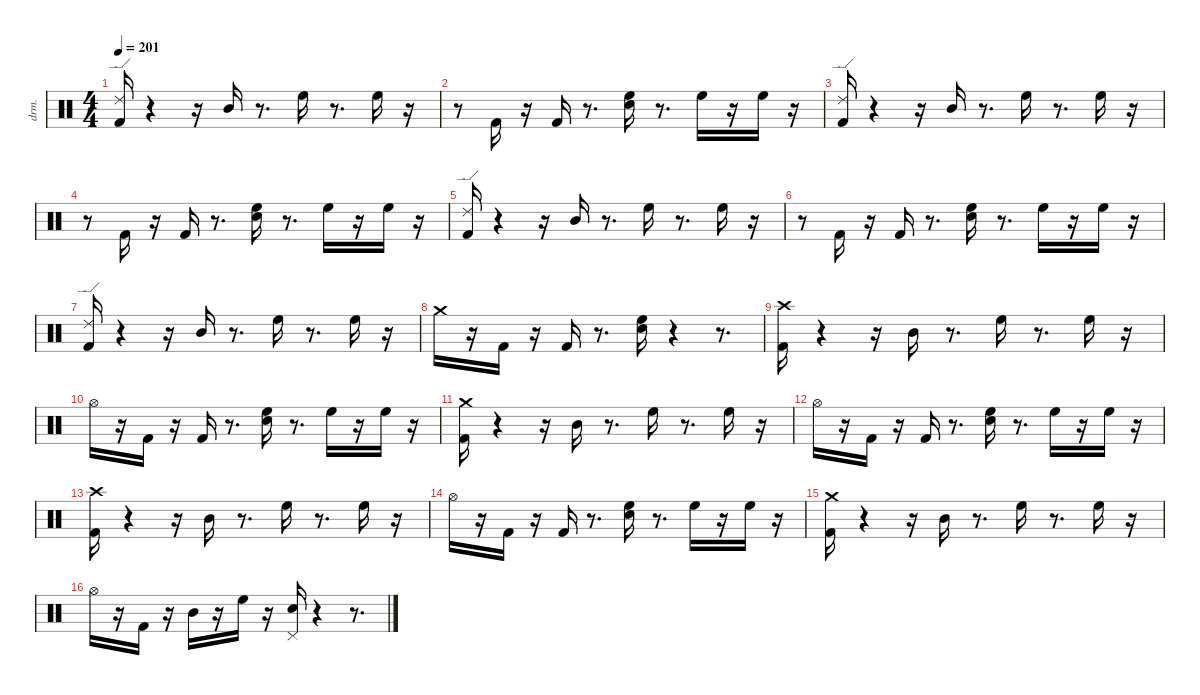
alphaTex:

\defaultSystemsLayout 4
\hideDynamics
\bracketExtendMode nobrackets
\otherSystemsTrackNameOrientation horizontal
\track ("Drums" "drm.") {instrument percussion}
\staff {score}
\articulation defaults
\ts (4 4)
\tempo 201
\clef neutral
\ks aminor
("Kick (hit) 2" "Ride (edge) 2").16{dy ff beam Up} r.4{beam Up} r.16{beam Up} "Mid Tom (hit)".16{beam Up} r.8{d beam Up} "High Floor Tom (hit)".16{beam Down} r.8{d beam Down} "High Floor Tom (hit)".16{beam Down} r.16{beam Down} |
r.8{beam Down} "Kick (hit) 2".16{dy f beam Up} r.16{beam Up} "Kick (hit) 2".16{dy mp beam Up} r.8{d beam Up} ("Snare (hit) 2" "High Floor Tom (hit)").16{dy ff beam Down} r.8{d beam Down} "High Floor Tom (hit)".16{beam Down} r.16{beam Down} "High Floor Tom (hit)".16{dy mf beam Down} r.16{beam Down} |
("Kick (hit) 2" "Ride (edge) 2").16{dy ff beam Up} r.4{beam Up} r.16{beam Up} "Mid Tom (hit)".16{beam Up} r.8{d beam Up} "High Floor Tom (hit)".16{beam Down} r.8{d beam Down} "High Floor Tom (hit)".16{beam Down} r.16{beam Down} |
r.8{beam Down} "Kick (hit) 2".16{dy f beam Up} r.16{beam Up} "Kick (hit) 2".16{dy mp beam Up} r.8{d beam Up} ("Snare (hit) 2" "High Floor Tom (hit)").16{dy ff beam Down} r.8{d beam Down} "High Floor Tom (hit)".16{beam Down} r.16{beam Down} "High Floor Tom (hit)".16{dy mf beam Down} r.16{beam Down} |
("Kick (hit) 2" "Ride (edge) 2").16{dy ff beam Up} r.4{beam Up} r.16{beam Up} "Mid Tom (hit)".16{beam Up} r.8{d beam Up} "High Floor Tom (hit)".16{beam Down} r.8{d beam Down} "High Floor Tom (hit)".16{beam Down} r.16{beam Down} |
r.8{beam Down} "Kick (hit) 2".16{dy f beam Up} r.16{beam Up} "Kick (hit) 2".16{dy mp beam Up} r.8{d beam Up} ("Snare (hit) 2" "High Floor Tom (hit)").16{dy ff beam Down} r.8{d beam Down} "High Floor Tom (hit)".16{beam Down} r.16{beam Down} "High Floor Tom (hit)".16{dy mf beam Down} r.16{beam Down} |
("Kick (hit) 2" "Ride (edge) 2").16{dy ff beam Up} r.4{beam Up} r.16{beam Up} "Mid Tom (hit)".16{beam Up} r.8{d beam Up} "High Floor Tom (hit)".16{beam Down} r.8{d beam Down} "High Floor Tom (hit)".16{beam Down} r.16{beam Down} |
"Crash medium (hit)".16{beam Down} r.16{beam Down} "Kick (hit) 2".16{dy f beam Down} r.16{beam Down} "Kick (hit) 2".16{dy mp beam Up} r.8{d beam Up} ("Snare (hit) 2" "High Floor Tom (hit)").16{dy ff beam Down} r.4{beam Down} r.8{d beam Down} |
("Kick (hit) 2" "Crash high (hit)"{acc #}).16{beam Down} r.4{beam Down} r.16{beam Down} "Mid Tom (hit)".16{beam Down} r.8{d beam Down} "High Floor Tom (hit)".16{beam Down} r.8{d beam Down} "High Floor Tom (hit)".16{beam Down} r.16{beam Down} |
"Hi-Hat (open)"{acc #}.16{beam Down} r.16{beam Down} "Kick (hit) 2".16{dy f beam Down} r.16{beam Down} "Kick (hit) 2".16{dy mp beam Up} r.8{d beam Up} ("Snare (hit) 2" "High Floor Tom (hit)").16{dy ff beam Down} r.8{d beam Down} "High Floor Tom (hit)".16{beam Down} r.16{beam Down} "High Floor Tom (hit)".16{dy mf beam Down} r.16{beam Down} |
("Kick (hit) 2" "Crash medium (hit)").16{dy ff beam Down} r.4{beam Down} r.16{beam Down} "Mid Tom (hit)".16{beam Down} r.8{d beam Down} "High Floor Tom (hit)".16{beam Down} r.8{d beam Down} "High Floor Tom (hit)".16{beam Down} r.16{beam Down} |
"Hi-Hat (open)"{acc #}.16{beam Down} r.16{beam Down} "Kick (hit) 2".16{dy f beam Down} r.16{beam Down} "Kick (hit) 2".16{dy mp beam Up} r.8{d beam Up} ("Snare (hit) 2" "High Floor Tom (hit)").16{dy ff beam Down} r.8{d beam Down} "High Floor Tom (hit)".16{beam Down} r.16{beam Down} "High Floor Tom (hit)".16{dy mf beam Down} r.16{beam Down} |
("Kick (hit) 2" "Crash high (hit)"{acc #}).16{dy ff beam Down} r.4{beam Down} r.16{beam Down} "Mid Tom (hit)".16{beam Down} r.8{d beam Down} "High Floor Tom (hit)".16{beam Down} r.8{d beam Down} "High Floor Tom (hit)".16{beam Down} r.16{beam Down} |
"Hi-Hat (open)"{acc #}.16{beam Down} r.16{beam Down} "Kick (hit) 2".16{dy f beam Down} r.16{beam Down} "Kick (hit) 2".16{dy mp beam Up} r.8{d beam Up} ("Snare (hit) 2" "High Floor Tom (hit)").16{dy ff beam Down} r.8{d beam Down} "High Floor Tom (hit)".16{beam Down} r.16{beam Down} "High Floor Tom (hit)".16{dy mf beam Down} r.16{beam Down} |
("Kick (hit) 2" "Crash medium (hit)").16{dy ff beam Down} r.4{beam Down} r.16{beam Down} "Mid Tom (hit)".16{beam Down} r.8{d beam Down} "High Floor Tom (hit)".16{beam Down} r.8{d beam Down} "High Floor Tom (hit)".16{beam Down} r.16{beam Down} |
"Hi-Hat (open)"{acc #}.16{dy fff beam Down} r.16{beam Down} "Kick (hit) 2".16{dy ff beam Down} r.16{beam Down} "Mid Tom (hit)".16{dy fff beam Down} r.16{beam Down} "High Floor Tom (hit)".16{beam Down} r.16{beam Down} ("Snare (hit) 2" "Pedal Hi-Hat (hit)"{acc #}).16{beam Up} r.4{beam Up} r.8{d beam Up}
